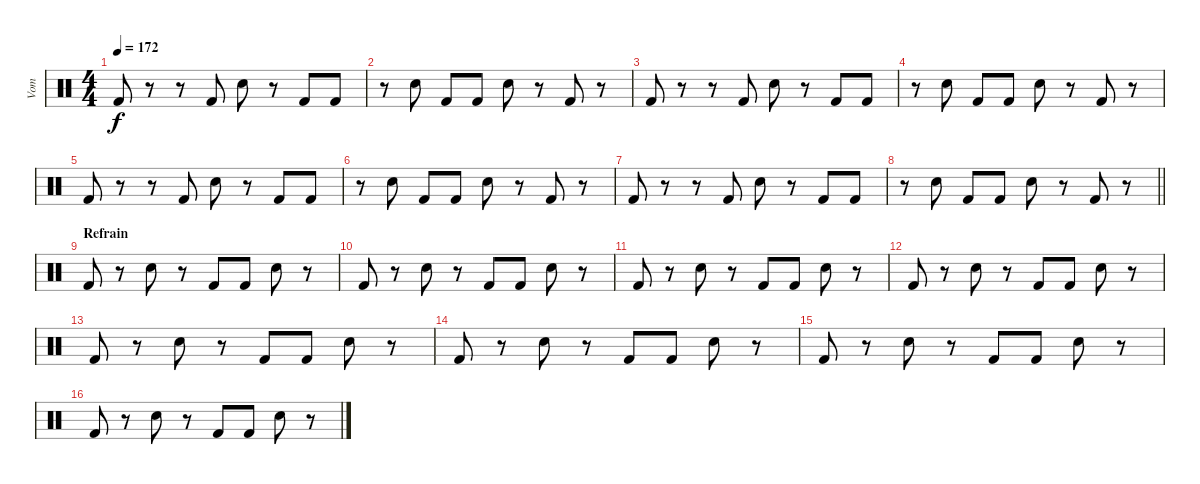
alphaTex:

\track ("Vom" "Vom") {instrument percussion}
\staff {score}
\articulation defaults
\ts (4 4)
\tempo 172
\clef neutral
\ks c "Kick (hit) 2".8{dy f}
r.8 r.8 "Kick (hit) 2".8 "Snare (hit) 2".8 r.8 "Kick (hit) 2".8 "Kick (hit) 2".8 |
r.8 "Snare (hit) 2".8 "Kick (hit) 2".8 "Kick (hit) 2".8 "Snare (hit) 2".8 r.8 "Kick (hit) 2".8 r.8 |
"Kick (hit) 2".8 r.8 r.8 "Kick (hit) 2".8 "Snare (hit) 2".8 r.8 "Kick (hit) 2".8 "Kick (hit) 2".8 |
r.8 "Snare (hit) 2".8 "Kick (hit) 2".8 "Kick (hit) 2".8 "Snare (hit) 2".8 r.8 "Kick (hit) 2".8 r.8 |
"Kick (hit) 2".8 r.8 r.8 "Kick (hit) 2".8 "Snare (hit) 2".8 r.8 "Kick (hit) 2".8 "Kick (hit) 2".8 |
r.8 "Snare (hit) 2".8 "Kick (hit) 2".8 "Kick (hit) 2".8 "Snare (hit) 2".8 r.8 "Kick (hit) 2".8 r.8 |
"Kick (hit) 2".8 r.8 r.8 "Kick (hit) 2".8 "Snare (hit) 2".8 r.8 "Kick (hit) 2".8 "Kick (hit) 2".8 |
\barLineRight lightlight
r.8 "Snare (hit) 2".8 "Kick (hit) 2".8 "Kick (hit) 2".8 "Snare (hit) 2".8 r.8 "Kick (hit) 2".8 r.8 |
\section ("" "Refrain")
"Kick (hit) 2".8 r.8 "Snare (hit) 2".8 r.8 "Kick (hit) 2".8 "Kick (hit) 2".8 "Snare (hit) 2".8 r.8 |
"Kick (hit) 2".8 r.8 "Snare (hit) 2".8 r.8 "Kick (hit) 2".8 "Kick (hit) 2".8 "Snare (hit) 2".8 r.8 |
"Kick (hit) 2".8 r.8 "Snare (hit) 2".8 r.8 "Kick (hit) 2".8 "Kick (hit) 2".8 "Snare (hit) 2".8 r.8 |
"Kick (hit) 2".8 r.8 "Snare (hit) 2".8 r.8 "Kick (hit) 2".8 "Kick (hit) 2".8 "Snare (hit) 2".8 r.8 |
"Kick (hit) 2".8 r.8 "Snare (hit) 2".8 r.8 "Kick (hit) 2".8 "Kick (hit) 2".8 "Snare (hit) 2".8 r.8 |
"Kick (hit) 2".8 r.8 "Snare (hit) 2".8 r.8 "Kick (hit) 2".8 "Kick (hit) 2".8 "Snare (hit) 2".8 r.8 |
"Kick (hit) 2".8 r.8 "Snare (hit) 2".8 r.8 "Kick (hit) 2".8 "Kick (hit) 2".8 "Snare (hit) 2".8 r.8 |
"Kick (hit) 2".8 r.8 "Snare (hit) 2".8 r.8 "Kick (hit) 2".8 "Kick (hit) 2".8 "Snare (hit) 2".8 r.8
